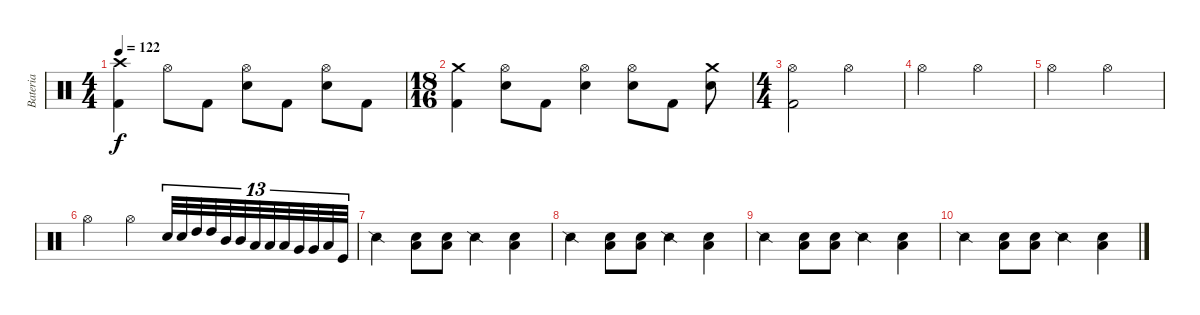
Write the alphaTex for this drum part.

\track ("Bateria" "Bateria") {instrument percussion}
\staff {score}
\articulation defaults
\ts (4 4)
\tempo 122
\clef neutral
\ks c
("Crash high (hit)" "Kick (hit) 2").4{dy f} "Hi-Hat (open)".8 "Kick (hit) 2".8 ("Hi-Hat (open)" "Electric Snare (hit)").8 "Kick (hit) 2".8 ("Hi-Hat (open)" "Electric Snare (hit)").8 "Kick (hit) 2".8 |
\ts (18 16)
("Crash medium (hit)" "Kick (hit) 2").4 ("Hi-Hat (open)" "Electric Snare (hit)").8 "Kick (hit) 2".8 ("Hi-Hat (open)" "Electric Snare (hit)").4 ("Hi-Hat (open)" "Electric Snare (hit)").8 "Kick (hit) 2".8 ("Crash medium (hit)" "Electric Snare (hit)").8 |
\ts (4 4)
("Hi-Hat (open)" "Kick (hit) 2").2 "Hi-Hat (open)".2 |
"Hi-Hat (open)".2 "Hi-Hat (open)".2 |
"Hi-Hat (open)".2 "Hi-Hat (open)".2 |
"Hi-Hat (open)".2 "Hi-Hat (open)".4 "Electric Snare (hit)".32{tu (13 8)} "Electric Snare (hit)".32{tu (13 8)} "High Tom (hit)".32{tu (13 8)} "High Tom (hit)".32{tu (13 8)} "Mid Tom (hit)".32{tu (13 8)} "Mid Tom (hit)".32{tu (13 8)} "Low Tom (hit)".32{tu (13 8)} "Low Tom (hit)".32{tu (13 8)} "Low Tom (hit)".32{tu (13 8)} "Very Low Tom (hit)".32{tu (13 8)} "Very Low Tom (hit)".32{tu (13 8)} "Low Floor Tom (hit)".32{tu (13 8)} "Kick (hit)".32{tu (13 8)} |
"Snare (side stick) 2".4 ("Electric Snare (hit)" "Low Floor Tom (hit)").8 ("Electric Snare (hit)" "Low Floor Tom (hit)").8 "Snare (side stick) 2".4 ("Electric Snare (hit)" "Low Floor Tom (hit)").4 |
"Snare (side stick) 2".4 ("Electric Snare (hit)" "Low Floor Tom (hit)").8 ("Electric Snare (hit)" "Low Floor Tom (hit)").8 "Snare (side stick) 2".4 ("Electric Snare (hit)" "Low Floor Tom (hit)").4 |
"Snare (side stick) 2".4 ("Electric Snare (hit)" "Low Floor Tom (hit)").8 ("Electric Snare (hit)" "Low Floor Tom (hit)").8 "Snare (side stick) 2".4 ("Electric Snare (hit)" "Low Floor Tom (hit)").4 |
"Snare (side stick) 2".4 ("Electric Snare (hit)" "Low Floor Tom (hit)").8 ("Electric Snare (hit)" "Low Floor Tom (hit)").8 "Snare (side stick) 2".4 ("Electric Snare (hit)" "Low Floor Tom (hit)").4
